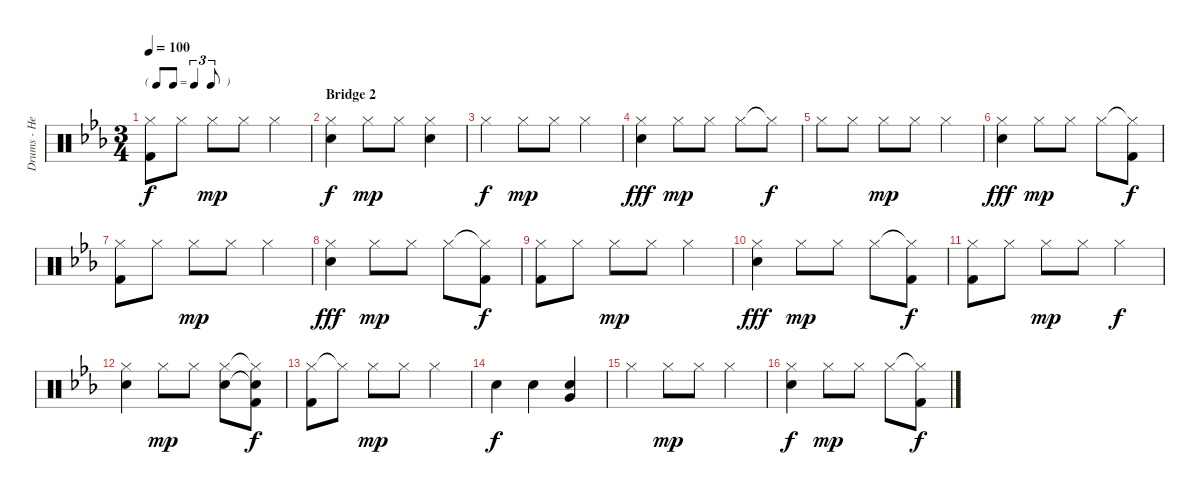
\track ("Drums - Henley" "Drums - He") {instrument percussion}
\staff {score}
\articulation defaults
\ts (3 4)
\tf triplet8th
\tempo 100
\clef neutral
\ks eb
("Hi-Hat (closed)" "Kick (hit) 2").8{dy f} "Hi-Hat (closed)".8 "Hi-Hat (closed)".8{dy mp} "Hi-Hat (closed)".8 "Hi-Hat (closed)".4 |
\section ("" "Bridge 2")
("Hi-Hat (closed)" "Electric Snare (hit)").4{dy f} "Hi-Hat (closed)".8{dy mp} "Hi-Hat (closed)".8 ("Hi-Hat (closed)" "Electric Snare (hit)").4 |
"Hi-Hat (closed)".4{dy f} "Hi-Hat (closed)".8{dy mp} "Hi-Hat (closed)".8 "Hi-Hat (closed)".4 |
("Hi-Hat (closed)" "Electric Snare (hit)").4{dy fff} "Hi-Hat (closed)".8{dy mp} "Hi-Hat (closed)".8 "Hi-Hat (closed)".8 "Hi-Hat (closed)"{t}.8{dy f} |
"Hi-Hat (closed)".8 "Hi-Hat (closed)".8 "Hi-Hat (closed)".8{dy mp} "Hi-Hat (closed)".8 "Hi-Hat (closed)".4 |
("Hi-Hat (closed)" "Electric Snare (hit)").4{dy fff} "Hi-Hat (closed)".8{dy mp} "Hi-Hat (closed)".8 "Hi-Hat (closed)".8 ("Hi-Hat (closed)"{t} "Kick (hit) 2").8{dy f} |
("Hi-Hat (closed)" "Kick (hit) 2").8 "Hi-Hat (closed)".8 "Hi-Hat (closed)".8{dy mp} "Hi-Hat (closed)".8 "Hi-Hat (closed)".4 |
("Hi-Hat (closed)" "Electric Snare (hit)").4{dy fff} "Hi-Hat (closed)".8{dy mp} "Hi-Hat (closed)".8 "Hi-Hat (closed)".8 ("Hi-Hat (closed)"{t} "Kick (hit) 2").8{dy f} |
("Hi-Hat (closed)" "Kick (hit) 2").8 "Hi-Hat (closed)".8 "Hi-Hat (closed)".8{dy mp} "Hi-Hat (closed)".8 "Hi-Hat (closed)".4 |
("Hi-Hat (closed)" "Electric Snare (hit)").4{dy fff} "Hi-Hat (closed)".8{dy mp} "Hi-Hat (closed)".8 "Hi-Hat (closed)".8 ("Hi-Hat (closed)"{t} "Kick (hit) 2").8{dy f} |
("Hi-Hat (closed)" "Kick (hit) 2").8 "Hi-Hat (closed)".8 "Hi-Hat (closed)".8{dy mp} "Hi-Hat (closed)".8 "Hi-Hat (closed)".4{dy f} |
("Hi-Hat (closed)" "Electric Snare (hit)").4 "Hi-Hat (closed)".8{dy mp} "Hi-Hat (closed)".8 ("Hi-Hat (closed)" "Electric Snare (hit)").8 ("Hi-Hat (closed)"{t} "Electric Snare (hit)"{t} "Kick (hit) 2").8{dy f} |
("Hi-Hat (closed)" "Kick (hit) 2").8 "Hi-Hat (closed)"{t}.8 "Hi-Hat (closed)".8{dy mp} "Hi-Hat (closed)".8 "Hi-Hat (closed)".4 |
"Electric Snare (hit)".4{dy f} "Electric Snare (hit)".4 ("Electric Snare (hit)" "Very Low Tom (hit)").4 |
"Hi-Hat (closed)".4 "Hi-Hat (closed)".8{dy mp} "Hi-Hat (closed)".8 "Hi-Hat (closed)".4 |
("Hi-Hat (closed)" "Electric Snare (hit)").4{dy f} "Hi-Hat (closed)".8{dy mp} "Hi-Hat (closed)".8 "Hi-Hat (closed)".8 ("Hi-Hat (closed)"{t} "Kick (hit) 2").8{dy f}
